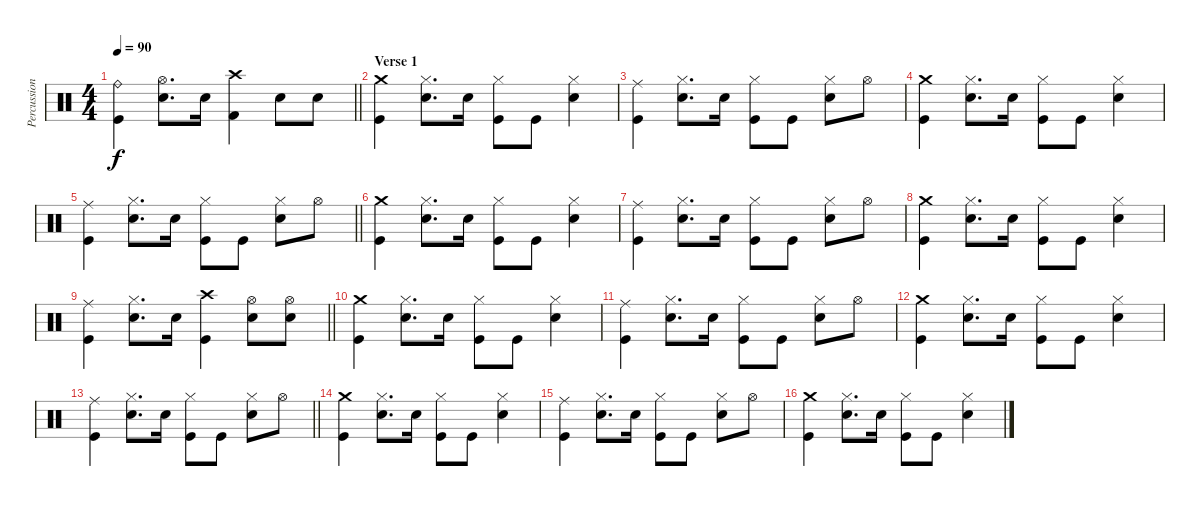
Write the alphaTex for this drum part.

\track ("Percussion" "Percussion") {instrument percussion}
\staff {score}
\articulation defaults
\ts (4 4)
\tempo 90
\clef neutral
\barLineRight lightlight
\ks c
("Ride (bell)" "Kick (hit)").4{dy f} ("Electric Snare (hit)" "Hi-Hat (open)").8{d} "Electric Snare (hit)".16 ("Crash high (hit)" "Kick (hit) 2").4 "Electric Snare (hit)".8 "Electric Snare (hit)".8 |
\section ("" "Verse 1")
("Crash medium (hit)" "Kick (hit)").4 ("Electric Snare (hit)" "Hi-Hat (closed)").8{d} "Electric Snare (hit)".16 ("Hi-Hat (closed)" "Kick (hit)").8 "Kick (hit)".8 ("Electric Snare (hit)" "Hi-Hat (closed)").4 |
("Ride (middle)" "Kick (hit)").4 ("Electric Snare (hit)" "Hi-Hat (closed)").8{d} "Electric Snare (hit)".16 ("Hi-Hat (closed)" "Kick (hit)").8 "Kick (hit)".8 ("Electric Snare (hit)" "Hi-Hat (closed)").8 "Hi-Hat (open)".8 |
("Crash medium (hit)" "Kick (hit)").4 ("Electric Snare (hit)" "Hi-Hat (closed)").8{d} "Electric Snare (hit)".16 ("Hi-Hat (closed)" "Kick (hit)").8 "Kick (hit)".8 ("Electric Snare (hit)" "Hi-Hat (closed)").4 |
\barLineRight lightlight
("Ride (middle)" "Kick (hit)").4 ("Electric Snare (hit)" "Hi-Hat (closed)").8{d} "Electric Snare (hit)".16 ("Hi-Hat (closed)" "Kick (hit)").8 "Kick (hit)".8 ("Electric Snare (hit)" "Hi-Hat (closed)").8 "Hi-Hat (open)".8 |
("Crash medium (hit)" "Kick (hit)").4 ("Electric Snare (hit)" "Hi-Hat (closed)").8{d} "Electric Snare (hit)".16 ("Hi-Hat (closed)" "Kick (hit)").8 "Kick (hit)".8 ("Electric Snare (hit)" "Hi-Hat (closed)").4 |
("Ride (middle)" "Kick (hit)").4 ("Electric Snare (hit)" "Hi-Hat (closed)").8{d} "Electric Snare (hit)".16 ("Hi-Hat (closed)" "Kick (hit)").8 "Kick (hit)".8 ("Electric Snare (hit)" "Hi-Hat (closed)").8 "Hi-Hat (open)".8 |
("Crash medium (hit)" "Kick (hit)").4 ("Electric Snare (hit)" "Hi-Hat (closed)").8{d} "Electric Snare (hit)".16 ("Hi-Hat (closed)" "Kick (hit)").8 "Kick (hit)".8 ("Electric Snare (hit)" "Hi-Hat (closed)").4 |
\barLineRight lightlight
("Ride (middle)" "Kick (hit)").4 ("Electric Snare (hit)" "Hi-Hat (closed)").8{d} "Electric Snare (hit)".16 ("Crash high (hit)" "Kick (hit)").4 ("Electric Snare (hit)" "Hi-Hat (open)").8 ("Electric Snare (hit)" "Hi-Hat (open)").8 |
("Crash medium (hit)" "Kick (hit)").4 ("Electric Snare (hit)" "Hi-Hat (closed)").8{d} "Electric Snare (hit)".16 ("Hi-Hat (closed)" "Kick (hit)").8 "Kick (hit)".8 ("Electric Snare (hit)" "Hi-Hat (closed)").4 |
("Ride (middle)" "Kick (hit)").4 ("Electric Snare (hit)" "Hi-Hat (closed)").8{d} "Electric Snare (hit)".16 ("Hi-Hat (closed)" "Kick (hit)").8 "Kick (hit)".8 ("Electric Snare (hit)" "Hi-Hat (closed)").8 "Hi-Hat (open)".8 |
("Crash medium (hit)" "Kick (hit)").4 ("Electric Snare (hit)" "Hi-Hat (closed)").8{d} "Electric Snare (hit)".16 ("Hi-Hat (closed)" "Kick (hit)").8 "Kick (hit)".8 ("Electric Snare (hit)" "Hi-Hat (closed)").4 |
\barLineRight lightlight
("Ride (middle)" "Kick (hit)").4 ("Electric Snare (hit)" "Hi-Hat (closed)").8{d} "Electric Snare (hit)".16 ("Hi-Hat (closed)" "Kick (hit)").8 "Kick (hit)".8 ("Electric Snare (hit)" "Hi-Hat (closed)").8 "Hi-Hat (open)".8 |
("Crash medium (hit)" "Kick (hit)").4 ("Electric Snare (hit)" "Hi-Hat (closed)").8{d} "Electric Snare (hit)".16 ("Hi-Hat (closed)" "Kick (hit)").8 "Kick (hit)".8 ("Electric Snare (hit)" "Hi-Hat (closed)").4 |
("Ride (middle)" "Kick (hit)").4 ("Electric Snare (hit)" "Hi-Hat (closed)").8{d} "Electric Snare (hit)".16 ("Hi-Hat (closed)" "Kick (hit)").8 "Kick (hit)".8 ("Electric Snare (hit)" "Hi-Hat (closed)").8 "Hi-Hat (open)".8 |
("Crash medium (hit)" "Kick (hit)").4 ("Electric Snare (hit)" "Hi-Hat (closed)").8{d} "Electric Snare (hit)".16 ("Hi-Hat (closed)" "Kick (hit)").8 "Kick (hit)".8 ("Electric Snare (hit)" "Hi-Hat (closed)").4
